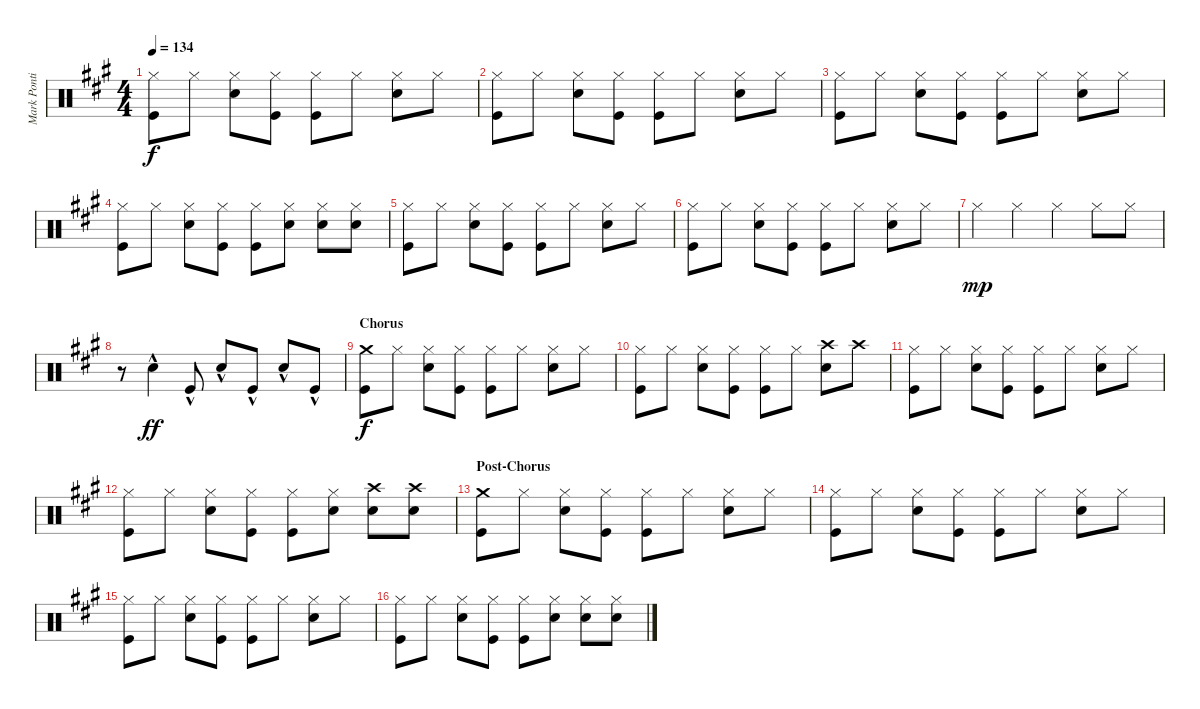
\track ("Mark Pontius" "Mark Ponti") {instrument percussion}
\staff {score}
\articulation defaults
\ts (4 4)
\tempo 134
\clef neutral
\ks a
("Kick (hit)" "Hi-Hat (closed)").8{dy f} "Hi-Hat (closed)".8 ("Hi-Hat (closed)" "Snare (hit) 2").8 ("Hi-Hat (closed)" "Kick (hit)").8 ("Hi-Hat (closed)" "Kick (hit)").8 "Hi-Hat (closed)".8 ("Hi-Hat (closed)" "Snare (hit) 2").8 "Hi-Hat (closed)".8 |
("Hi-Hat (closed)" "Kick (hit)").8 "Hi-Hat (closed)".8 ("Hi-Hat (closed)" "Snare (hit) 2").8 ("Hi-Hat (closed)" "Kick (hit)").8 ("Hi-Hat (closed)" "Kick (hit)").8 "Hi-Hat (closed)".8 ("Hi-Hat (closed)" "Snare (hit) 2").8 "Hi-Hat (closed)".8 |
("Hi-Hat (closed)" "Kick (hit)").8 "Hi-Hat (closed)".8 ("Hi-Hat (closed)" "Snare (hit) 2").8 ("Hi-Hat (closed)" "Kick (hit)").8 ("Hi-Hat (closed)" "Kick (hit)").8 "Hi-Hat (closed)".8 ("Hi-Hat (closed)" "Snare (hit) 2").8 "Hi-Hat (closed)".8 |
("Hi-Hat (closed)" "Kick (hit)").8 "Hi-Hat (closed)".8 ("Hi-Hat (closed)" "Snare (hit) 2").8 ("Hi-Hat (closed)" "Kick (hit)").8 ("Hi-Hat (closed)" "Kick (hit)").8 ("Hi-Hat (closed)" "Snare (hit) 2").8 ("Hi-Hat (closed)" "Snare (hit) 2").8 ("Hi-Hat (closed)" "Snare (hit) 2").8 |
("Kick (hit)" "Hi-Hat (closed)").8 "Hi-Hat (closed)".8 ("Hi-Hat (closed)" "Snare (hit) 2").8 ("Hi-Hat (closed)" "Kick (hit)").8 ("Hi-Hat (closed)" "Kick (hit)").8 "Hi-Hat (closed)".8 ("Hi-Hat (closed)" "Snare (hit) 2").8 "Hi-Hat (closed)".8 |
("Hi-Hat (closed)" "Kick (hit)").8 "Hi-Hat (closed)".8 ("Hi-Hat (closed)" "Snare (hit) 2").8 ("Hi-Hat (closed)" "Kick (hit)").8 ("Hi-Hat (closed)" "Kick (hit)").8 "Hi-Hat (closed)".8 ("Hi-Hat (closed)" "Snare (hit) 2").8 "Hi-Hat (closed)".8 |
"Hi-Hat (closed)".4{dy mp} "Hi-Hat (closed)".4 "Hi-Hat (closed)".4 "Hi-Hat (closed)".8 "Hi-Hat (closed)".8 |
r.8 "Snare (hit) 2"{hac}.4{dy ff} "Kick (hit)"{hac}.8 "Snare (hit) 2"{hac}.8 "Kick (hit)"{hac}.8 "Snare (hit) 2"{hac}.8 "Kick (hit)"{hac}.8 |
\section ("" "Chorus")
("Crash medium (hit)" "Kick (hit)").8{dy f} "Hi-Hat (closed)".8 ("Hi-Hat (closed)" "Snare (hit) 2").8 ("Hi-Hat (closed)" "Kick (hit)").8 ("Hi-Hat (closed)" "Kick (hit)").8 "Hi-Hat (closed)".8 ("Hi-Hat (closed)" "Snare (hit) 2").8 "Hi-Hat (closed)".8 |
("Hi-Hat (closed)" "Kick (hit)").8 "Hi-Hat (closed)".8 ("Hi-Hat (closed)" "Snare (hit) 2").8 ("Hi-Hat (closed)" "Kick (hit)").8 ("Hi-Hat (closed)" "Kick (hit)").8 "Hi-Hat (closed)".8 ("Snare (hit) 2" "Crash high (hit)").8 "Crash high (hit)".8 |
("Hi-Hat (closed)" "Kick (hit)").8 "Hi-Hat (closed)".8 ("Hi-Hat (closed)" "Snare (hit) 2").8 ("Hi-Hat (closed)" "Kick (hit)").8 ("Hi-Hat (closed)" "Kick (hit)").8 "Hi-Hat (closed)".8 ("Hi-Hat (closed)" "Snare (hit) 2").8 "Hi-Hat (closed)".8 |
("Hi-Hat (closed)" "Kick (hit)").8 "Hi-Hat (closed)".8 ("Hi-Hat (closed)" "Snare (hit) 2").8 ("Hi-Hat (closed)" "Kick (hit)").8 ("Hi-Hat (closed)" "Kick (hit)").8 ("Hi-Hat (closed)" "Snare (hit) 2").8 ("Snare (hit) 2" "Crash high (hit)").8 ("Snare (hit) 2" "Crash high (hit)").8 |
\section ("" "Post-Chorus")
("Crash medium (hit)" "Kick (hit)").8 "Hi-Hat (closed)".8 ("Hi-Hat (closed)" "Snare (hit) 2").8 ("Hi-Hat (closed)" "Kick (hit)").8 ("Hi-Hat (closed)" "Kick (hit)").8 "Hi-Hat (closed)".8 ("Hi-Hat (closed)" "Snare (hit) 2").8 "Hi-Hat (closed)".8 |
("Hi-Hat (closed)" "Kick (hit)").8 "Hi-Hat (closed)".8 ("Hi-Hat (closed)" "Snare (hit) 2").8 ("Hi-Hat (closed)" "Kick (hit)").8 ("Hi-Hat (closed)" "Kick (hit)").8 "Hi-Hat (closed)".8 ("Hi-Hat (closed)" "Snare (hit) 2").8 "Hi-Hat (closed)".8 |
("Hi-Hat (closed)" "Kick (hit)").8 "Hi-Hat (closed)".8 ("Hi-Hat (closed)" "Snare (hit) 2").8 ("Hi-Hat (closed)" "Kick (hit)").8 ("Hi-Hat (closed)" "Kick (hit)").8 "Hi-Hat (closed)".8 ("Hi-Hat (closed)" "Snare (hit) 2").8 "Hi-Hat (closed)".8 |
("Hi-Hat (closed)" "Kick (hit)").8 "Hi-Hat (closed)".8 ("Hi-Hat (closed)" "Snare (hit) 2").8 ("Hi-Hat (closed)" "Kick (hit)").8 ("Hi-Hat (closed)" "Kick (hit)").8 ("Hi-Hat (closed)" "Snare (hit) 2").8 ("Hi-Hat (closed)" "Snare (hit) 2").8 ("Hi-Hat (closed)" "Snare (hit) 2").8
